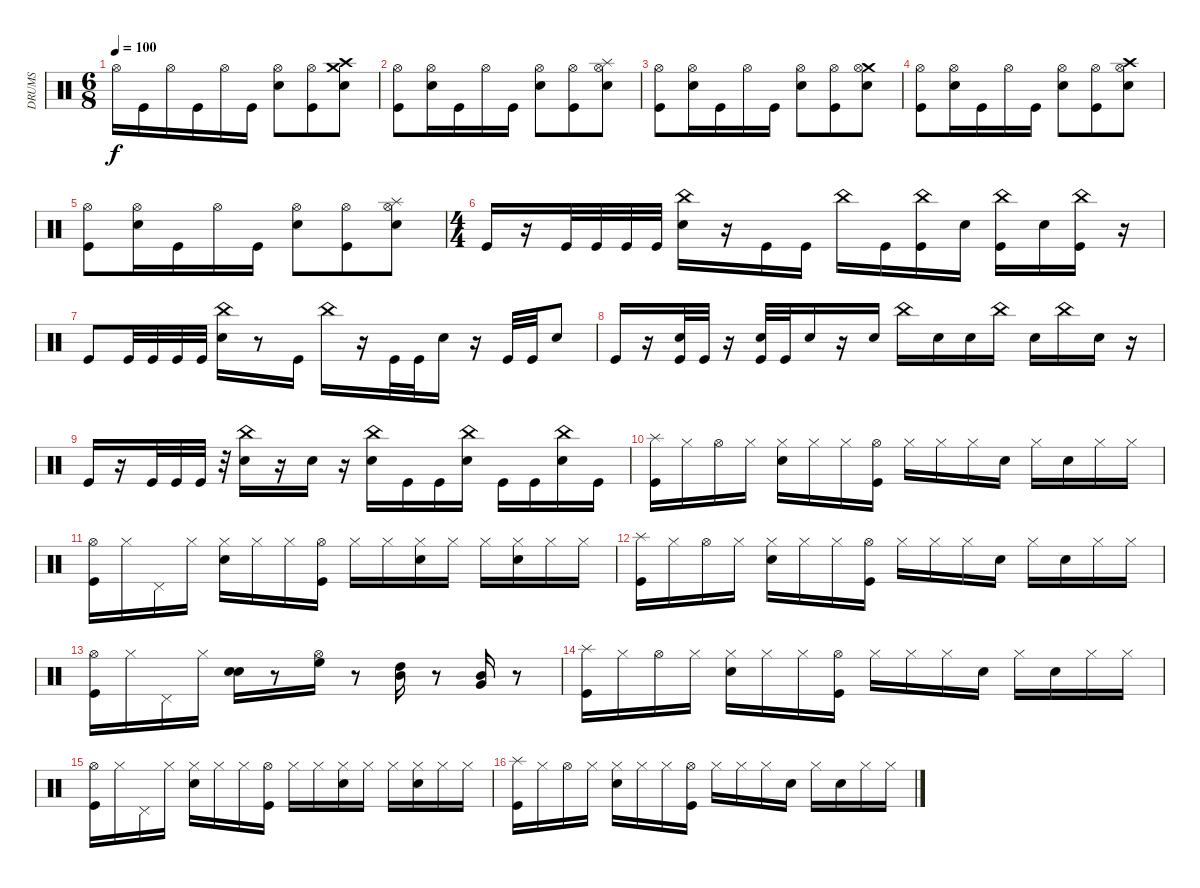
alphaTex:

\track ("DRUMS" "DRUMS") {instrument percussion}
\staff {score}
\articulation defaults
\ts (6 8)
\tempo 100
\clef neutral
\ks c "Hi-Hat (open)".16{dy f} "Kick (hit)".16 "Hi-Hat (open)".16 "Kick (hit)".16 "Hi-Hat (open)".16 "Kick (hit)".16
("Snare (hit) 2" "Hi-Hat (open)").8 ("Kick (hit)" "Hi-Hat (open)").8 ("Crash medium (hit)" "Snare (hit) 2" "Crash high (hit)").8 |
("Hi-Hat (open)" "Kick (hit)").8 ("Snare (hit) 2" "Hi-Hat (open)").16 "Kick (hit)".16 "Hi-Hat (open)".16 "Kick (hit)".16 ("Hi-Hat (open)" "Snare (hit) 2").8 ("Kick (hit)" "Hi-Hat (open)").8 ("Splash (hit)" "Snare (hit) 2" "Hi-Hat (open)").8 |
("Hi-Hat (open)" "Kick (hit)").8 ("Snare (hit) 2" "Hi-Hat (open)").16 "Kick (hit)".16 "Hi-Hat (open)".16 "Kick (hit)".16 ("Hi-Hat (open)" "Snare (hit) 2").8 ("Kick (hit)" "Hi-Hat (open)").8 ("Crash medium (hit)" "Snare (hit) 2" "Hi-Hat (open)").8 |
("Hi-Hat (open)" "Kick (hit)").8 ("Snare (hit) 2" "Hi-Hat (open)").16 "Kick (hit)".16 "Hi-Hat (open)".16 "Kick (hit)".16 ("Hi-Hat (open)" "Snare (hit) 2").8 ("Kick (hit)" "Hi-Hat (open)").8 ("Crash high (hit)" "Snare (hit) 2" "Hi-Hat (open)").8 |
("Hi-Hat (open)" "Kick (hit)").8 ("Snare (hit) 2" "Hi-Hat (open)").16 "Kick (hit)".16 "Hi-Hat (open)".16 "Kick (hit)".16 ("Hi-Hat (open)" "Snare (hit) 2").8 ("Kick (hit)" "Hi-Hat (open)").8 ("Splash (hit)" "Snare (hit) 2" "Hi-Hat (open)").8 |
\ts (4 4)
"Kick (hit)".16 r.16 "Kick (hit)".32 "Kick (hit)".32 "Kick (hit)".32 "Kick (hit)".32 ("China (hit)" "Snare (hit) 2").16 r.16 "Kick (hit)".16 "Kick (hit)".16 "China (hit)".16 "Kick (hit)".16 ("Kick (hit)" "China (hit)").16 "Snare (hit) 2".16 ("Kick (hit)" "China (hit)").16 "Snare (hit) 2".16 ("Kick (hit)" "China (hit)").16 r.16 |
"Kick (hit)".8 "Kick (hit)".32 "Kick (hit)".32 "Kick (hit)".32 "Kick (hit)".32 ("China (hit)" "Snare (hit) 2").16 r.8 "Kick (hit)".16 "China (hit)".16 r.16 "Kick (hit)".32 "Kick (hit)".32 "Snare (hit) 2".16 r.16 "Kick (hit)".32 "Kick (hit)".32 "Snare (hit) 2".8 |
"Kick (hit)".16 r.16 ("Kick (hit)" "Snare (hit) 2").32 "Kick (hit)".32 r.16 ("Kick (hit)" "Snare (hit) 2").32 "Kick (hit)".32 "Snare (hit) 2".16 r.16 "Snare (hit) 2".16 "China (hit)".16 "Snare (hit) 2".16 "Snare (hit) 2".16 "China (hit)".16 "Snare (hit) 2".16 "China (hit)".16 "Snare (hit) 2".16 r.16 |
"Kick (hit)".16 r.16 "Kick (hit)".32 "Kick (hit)".32 "Kick (hit)".32 r.32 ("China (hit)" "Snare (hit) 2").16 r.16 "Snare (hit) 2".16 r.16 ("China (hit)" "Snare (hit) 2").16 "Kick (hit)".16 "Kick (hit)".16 ("China (hit)" "Snare (hit) 2").16 "Kick (hit)".16 "Kick (hit)".16 ("China (hit)" "Snare (hit) 2").16 "Kick (hit)".16 |
("Splash (hit)" "Kick (hit)").16 "Hi-Hat (closed)".16 "Hi-Hat (open)".16 "Hi-Hat (closed)".16 ("Hi-Hat (closed)" "Snare (hit) 2").16 "Hi-Hat (closed)".16 "Hi-Hat (closed)".16 ("Hi-Hat (open)" "Kick (hit)").16 "Hi-Hat (closed)".16 "Hi-Hat (closed)".16 "Hi-Hat (closed)".16 "Snare (hit) 2".16 "Hi-Hat (closed)".16 "Snare (hit) 2".16 "Hi-Hat (closed)".16 "Hi-Hat (closed)".16 |
("Hi-Hat (open)" "Kick (hit)").16 "Hi-Hat (closed)".16 "Pedal Hi-Hat (hit)".16 "Hi-Hat (closed)".16 ("Snare (hit) 2" "Hi-Hat (closed)").16 "Hi-Hat (closed)".16 "Hi-Hat (closed)".16 ("Kick (hit)" "Hi-Hat (open)").16 "Hi-Hat (closed)".16 "Hi-Hat (closed)".16 ("Snare (hit) 2" "Hi-Hat (closed)").16 "Hi-Hat (closed)".16 "Hi-Hat (closed)".16 ("Snare (hit) 2" "Hi-Hat (closed)").16 "Hi-Hat (closed)".16 "Hi-Hat (closed)".16 |
("Splash (hit)" "Kick (hit)").16 "Hi-Hat (closed)".16 "Hi-Hat (open)".16 "Hi-Hat (closed)".16 ("Hi-Hat (closed)" "Snare (hit) 2").16 "Hi-Hat (closed)".16 "Hi-Hat (closed)".16 ("Hi-Hat (open)" "Kick (hit)").16 "Hi-Hat (closed)".16 "Hi-Hat (closed)".16 "Hi-Hat (closed)".16 "Snare (hit) 2".16 "Hi-Hat (closed)".16 "Snare (hit) 2".16 "Hi-Hat (closed)".16 "Hi-Hat (closed)".16 |
("Hi-Hat (open)" "Kick (hit)").16 "Hi-Hat (closed)".16 "Pedal Hi-Hat (hit)".16 "Hi-Hat (closed)".16 ("Snare (hit) 2" "Electric Snare (hit)").16 r.8 ("High Floor Tom (hit)" "Hi-Hat (open)").16 r.8 ("Mid Tom (hit)" "High Tom (hit)").16 r.8 ("Very Low Tom (hit)" "Mid Tom (hit)").16 r.8 |
("Splash (hit)" "Kick (hit)").16 "Hi-Hat (closed)".16 "Hi-Hat (open)".16 "Hi-Hat (closed)".16 ("Hi-Hat (closed)" "Snare (hit) 2").16 "Hi-Hat (closed)".16 "Hi-Hat (closed)".16 ("Hi-Hat (open)" "Kick (hit)").16 "Hi-Hat (closed)".16 "Hi-Hat (closed)".16 "Hi-Hat (closed)".16 "Snare (hit) 2".16 "Hi-Hat (closed)".16 "Snare (hit) 2".16 "Hi-Hat (closed)".16 "Hi-Hat (closed)".16 |
("Hi-Hat (open)" "Kick (hit)").16 "Hi-Hat (closed)".16 "Pedal Hi-Hat (hit)".16 "Hi-Hat (closed)".16 ("Snare (hit) 2" "Hi-Hat (closed)").16 "Hi-Hat (closed)".16 "Hi-Hat (closed)".16 ("Kick (hit)" "Hi-Hat (open)").16 "Hi-Hat (closed)".16 "Hi-Hat (closed)".16 ("Snare (hit) 2" "Hi-Hat (closed)").16 "Hi-Hat (closed)".16 "Hi-Hat (closed)".16 ("Snare (hit) 2" "Hi-Hat (closed)").16 "Hi-Hat (closed)".16 "Hi-Hat (closed)".16 |
("Splash (hit)" "Kick (hit)").16 "Hi-Hat (closed)".16 "Hi-Hat (open)".16 "Hi-Hat (closed)".16 ("Hi-Hat (closed)" "Snare (hit) 2").16 "Hi-Hat (closed)".16 "Hi-Hat (closed)".16 ("Hi-Hat (open)" "Kick (hit)").16 "Hi-Hat (closed)".16 "Hi-Hat (closed)".16 "Hi-Hat (closed)".16 "Snare (hit) 2".16 "Hi-Hat (closed)".16 "Snare (hit) 2".16 "Hi-Hat (closed)".16 "Hi-Hat (closed)".16
